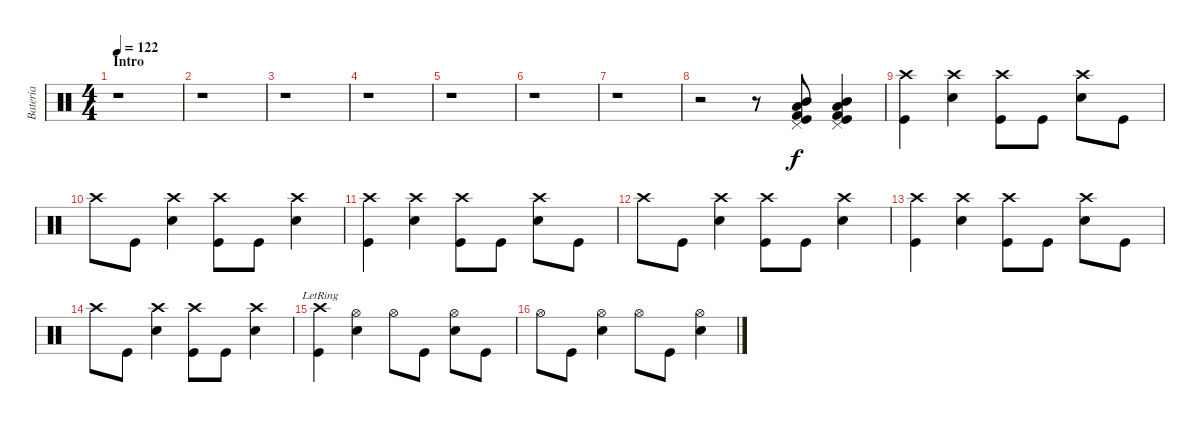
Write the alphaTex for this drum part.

\track ("Bateria" "Bateria") {instrument percussion}
\staff {score}
\articulation defaults
\ts (4 4)
\section ("" "Intro")
\tempo 122
\clef neutral
\ks c
r.1{dy f} |
r.1 |
r.1 |
r.1 |
r.1 |
r.1 |
r.1 |
r.2 r.8 ("Mid Tom (hit)" "Kick (hit) 2" "Kick (hit)" "Low Tom (hit)" "Pedal Hi-Hat (hit)").8 ("Mid Tom (hit)" "Kick (hit) 2" "Kick (hit)" "Low Tom (hit)" "Pedal Hi-Hat (hit)").4 |
("Crash high (hit)" "Kick (hit)").4 ("Crash high (hit)" "Snare (hit) 2").4 ("Crash high (hit)" "Kick (hit)").8 "Kick (hit)".8 ("Crash high (hit)" "Snare (hit) 2").8 "Kick (hit)".8 |
"Crash high (hit)".8 "Kick (hit)".8 ("Crash high (hit)" "Snare (hit) 2").4 ("Crash high (hit)" "Kick (hit)").8 "Kick (hit)".8 ("Crash high (hit)" "Snare (hit) 2").4 |
("Crash high (hit)" "Kick (hit)").4 ("Crash high (hit)" "Snare (hit) 2").4 ("Crash high (hit)" "Kick (hit)").8 "Kick (hit)".8 ("Crash high (hit)" "Snare (hit) 2").8 "Kick (hit)".8 |
"Crash high (hit)".8 "Kick (hit)".8 ("Crash high (hit)" "Snare (hit) 2").4 ("Crash high (hit)" "Kick (hit)").8 "Kick (hit)".8 ("Crash high (hit)" "Snare (hit) 2").4 |
("Crash high (hit)" "Kick (hit)").4 ("Crash high (hit)" "Snare (hit) 2").4 ("Crash high (hit)" "Kick (hit)").8 "Kick (hit)".8 ("Crash high (hit)" "Snare (hit) 2").8 "Kick (hit)".8 |
"Crash high (hit)".8 "Kick (hit)".8 ("Crash high (hit)" "Snare (hit) 2").4 ("Crash high (hit)" "Kick (hit)").8 "Kick (hit)".8 ("Crash high (hit)" "Snare (hit) 2").4 |
("Crash high (hit)"{lr} "Kick (hit)").4 ("Hi-Hat (open)" "Snare (hit) 2").4 "Hi-Hat (open)".8 "Kick (hit)".8 ("Hi-Hat (open)" "Snare (hit) 2").8 "Kick (hit)".8 |
"Hi-Hat (open)".8 "Kick (hit)".8 ("Hi-Hat (open)" "Snare (hit) 2").4 "Hi-Hat (open)".8 "Kick (hit)".8 ("Hi-Hat (open)" "Snare (hit) 2").4
